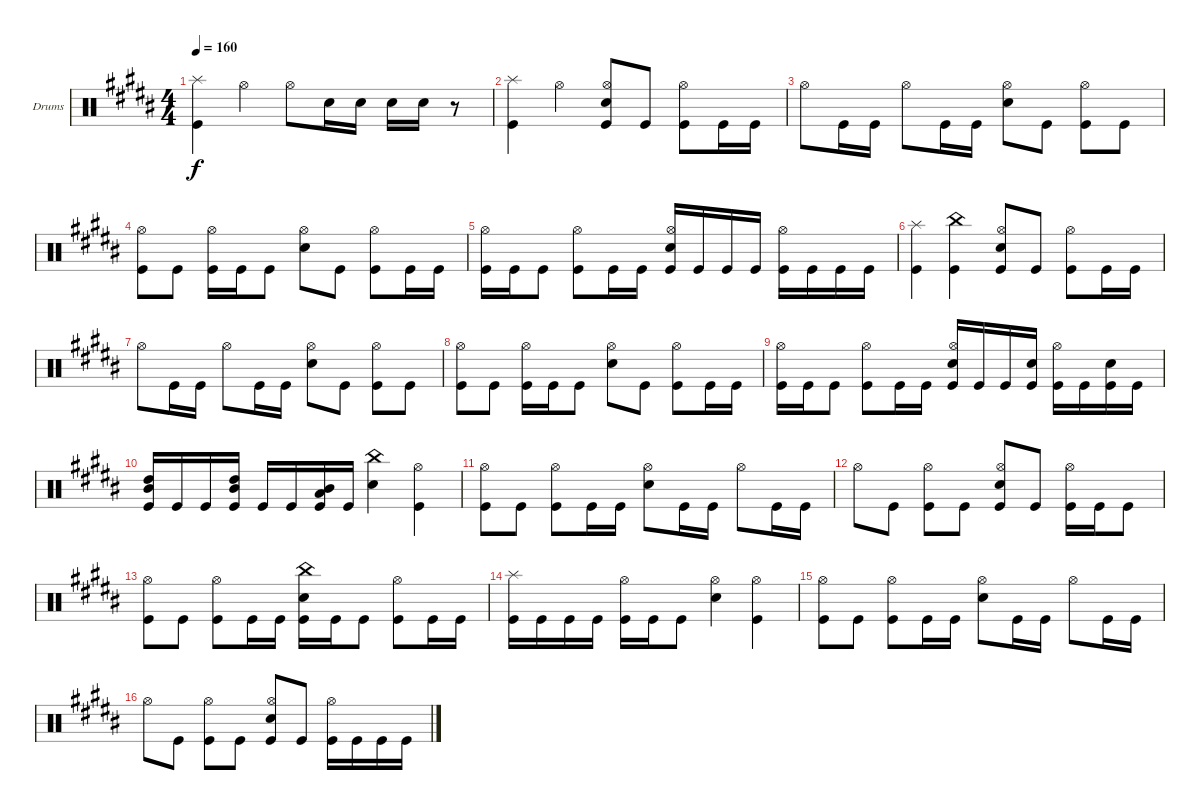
\defaultSystemsLayout 4
\bracketExtendMode groupsimilarinstruments
\firstSystemTrackNameOrientation horizontal
\otherSystemsTrackNameOrientation horizontal
\track ("Drumkit" "Drums") {instrument percussion}
\staff {score}
\articulation defaults
\ts (4 4)
\tempo 160
\clef neutral
\scale
0.333333
\ks b
("Kick (hit)" "Splash (hit)").4{dy f} "Hi-Hat (open)".4 "Hi-Hat (open)".8 "Snare (hit) 2".16 "Snare (hit) 2".16 "Snare (hit) 2".16 "Snare (hit) 2".16 r.8 |
\scale
0.333333 ("Kick (hit)" "Splash (hit)").4 "Hi-Hat (open)".4 ("Hi-Hat (open)" "Snare (hit) 2" "Kick (hit)").8 "Kick (hit)".8 ("Kick (hit)" "Hi-Hat (open)").8 "Kick (hit)".16 "Kick (hit)".16 |
\scale
0.333333 "Hi-Hat (open)".8 "Kick (hit)".16 "Kick (hit)".16 "Hi-Hat (open)".8 "Kick (hit)".16 "Kick (hit)".16 ("Hi-Hat (open)" "Snare (hit) 2").8 "Kick (hit)".8 ("Kick (hit)" "Hi-Hat (open)").8 "Kick (hit)".8 |
\scale
0.333333 ("Kick (hit)" "Hi-Hat (open)").8 "Kick (hit)".8 ("Kick (hit)" "Hi-Hat (open)").16 "Kick (hit)".16 "Kick (hit)".8 ("Hi-Hat (open)" "Snare (hit) 2").8 "Kick (hit)".8 ("Kick (hit)" "Hi-Hat (open)").8 "Kick (hit)".16 "Kick (hit)".16 |
\scale
0.333333 ("Kick (hit)" "Hi-Hat (open)").16 "Kick (hit)".16 "Kick (hit)".8 ("Kick (hit)" "Hi-Hat (open)").8 "Kick (hit)".16 "Kick (hit)".16 ("Kick (hit)" "Hi-Hat (open)" "Snare (hit) 2").16 "Kick (hit)".16 "Kick (hit)".16 "Kick (hit)".16 ("Kick (hit)" "Hi-Hat (open)").16 "Kick (hit)".16 "Kick (hit)".16 "Kick (hit)".16 |
\scale
0.333333 ("Kick (hit)" "Splash (hit)").4 ("Kick (hit)" "China (hit)").4 ("Hi-Hat (open)" "Snare (hit) 2" "Kick (hit)").8 "Kick (hit)".8 ("Kick (hit)" "Hi-Hat (open)").8 "Kick (hit)".16 "Kick (hit)".16 |
\scale
0.333333 "Hi-Hat (open)".8 "Kick (hit)".16 "Kick (hit)".16 "Hi-Hat (open)".8 "Kick (hit)".16 "Kick (hit)".16 ("Hi-Hat (open)" "Snare (hit) 2").8 "Kick (hit)".8 ("Kick (hit)" "Hi-Hat (open)").8 "Kick (hit)".8 |
\scale
0.333333 ("Kick (hit)" "Hi-Hat (open)").8 "Kick (hit)".8 ("Kick (hit)" "Hi-Hat (open)").16 "Kick (hit)".16 "Kick (hit)".8 ("Hi-Hat (open)" "Snare (hit) 2").8 "Kick (hit)".8 ("Kick (hit)" "Hi-Hat (open)").8 "Kick (hit)".16 "Kick (hit)".16 |
\scale
0.333333 ("Kick (hit)" "Hi-Hat (open)").16 "Kick (hit)".16 "Kick (hit)".8 ("Kick (hit)" "Hi-Hat (open)").8 "Kick (hit)".16 "Kick (hit)".16 ("Kick (hit)" "Hi-Hat (open)" "Snare (hit) 2").16 "Kick (hit)".16 "Kick (hit)".16 ("Kick (hit)" "Snare (hit) 2").16 ("Kick (hit)" "Hi-Hat (open)").16 "Kick (hit)".16 ("Kick (hit)" "Snare (hit) 2").16 "Kick (hit)".16 |
\scale
0.333333 ("Kick (hit)" "High Tom (hit)" "Mid Tom (hit)").16 "Kick (hit)".16 "Kick (hit)".16 ("Kick (hit)" "High Tom (hit)" "Mid Tom (hit)").16 "Kick (hit)".16 "Kick (hit)".16 ("Kick (hit)" "Mid Tom (hit)" "Low Tom (hit)").16 "Kick (hit)".16 ("Snare (hit) 2" "China (hit)").4 ("Kick (hit)" "Hi-Hat (open)").4 |
\scale
0.333333 ("Kick (hit)" "Hi-Hat (open)").8 "Kick (hit)".8 ("Kick (hit)" "Hi-Hat (open)").8 "Kick (hit)".16 "Kick (hit)".16 ("Snare (hit) 2" "Hi-Hat (open)").8 "Kick (hit)".16 "Kick (hit)".16 "Hi-Hat (open)".8 "Kick (hit)".16 "Kick (hit)".16 |
\scale
0.333333 "Hi-Hat (open)".8 "Kick (hit)".8 ("Kick (hit)" "Hi-Hat (open)").8 "Kick (hit)".8 ("Hi-Hat (open)" "Snare (hit) 2" "Kick (hit)").8 "Kick (hit)".8 ("Kick (hit)" "Hi-Hat (open)").16 "Kick (hit)".16 "Kick (hit)".8 |
\scale
0.333333 ("Hi-Hat (open)" "Kick (hit)").8 "Kick (hit)".8 ("Hi-Hat (open)" "Kick (hit)").8 "Kick (hit)".16 "Kick (hit)".16 ("Kick (hit)" "Snare (hit) 2" "China (hit)").16 "Kick (hit)".16 "Kick (hit)".8 ("Kick (hit)" "Hi-Hat (open)").8 "Kick (hit)".16 "Kick (hit)".16 |
\scale
0.333333 ("Kick (hit)" "Splash (hit)").16 "Kick (hit)".16 "Kick (hit)".16 "Kick (hit)".16 ("Kick (hit)" "Hi-Hat (open)").16 "Kick (hit)".16 "Kick (hit)".8 ("Hi-Hat (open)" "Snare (hit) 2").4 ("Kick (hit)" "Hi-Hat (open)").4 |
\scale
0.333333 ("Kick (hit)" "Hi-Hat (open)").8 "Kick (hit)".8 ("Kick (hit)" "Hi-Hat (open)").8 "Kick (hit)".16 "Kick (hit)".16 ("Hi-Hat (open)" "Snare (hit) 2").8 "Kick (hit)".16 "Kick (hit)".16 "Hi-Hat (open)".8 "Kick (hit)".16 "Kick (hit)".16 |
\scale
0.333333 "Hi-Hat (open)".8 "Kick (hit)".8 ("Kick (hit)" "Hi-Hat (open)").8 "Kick (hit)".8 ("Kick (hit)" "Hi-Hat (open)" "Snare (hit) 2").8 "Kick (hit)".8 ("Kick (hit)" "Hi-Hat (open)").16 "Kick (hit)".16 "Kick (hit)".16 "Kick (hit)".16
